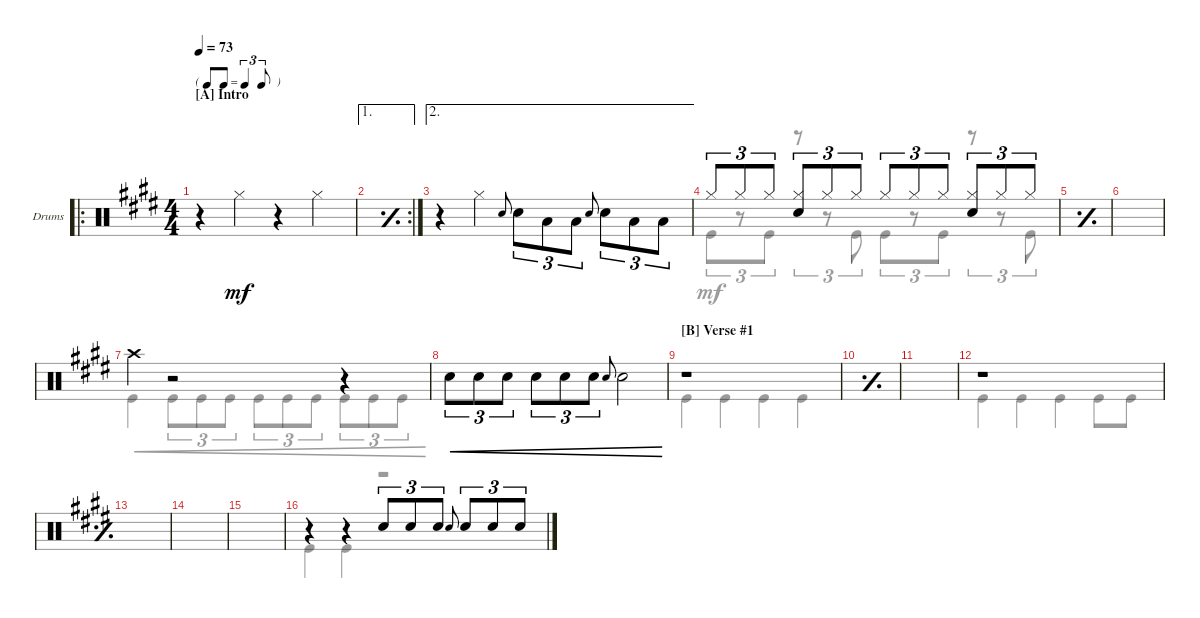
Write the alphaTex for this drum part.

\defaultSystemsLayout 4
\bracketExtendMode groupsimilarinstruments
\firstSystemTrackNameOrientation horizontal
\otherSystemsTrackNameOrientation horizontal
\track ("Drumkit" "Drums") {instrument percussion}
\staff {score}
\articulation defaults
\voice
\ro
\ts (4 4)
\tf triplet8th
\section ("A" "Intro")
\tempo 73
\clef neutral
\ks e
r.4{dy mf} "Hi-Hat (closed)".4 r.4 "Hi-Hat (closed)".4 |
\ae 1
\rc 2
\simile simple
|
\ae 2
\simile none
r.4 "Hi-Hat (closed)".4 "Snare (hit) 2".8{gr onbeat} "Snare (hit) 2".8{tu (3 2)} "Low Tom (hit)".8{tu (3 2)} "Low Tom (hit)".8{tu (3 2)} "Snare (hit) 2".8{gr onbeat} "Snare (hit) 2".8{tu (3 2)} "Low Tom (hit)".8{tu (3 2)} "Low Tom (hit)".8{tu (3 2)} |
"Hi-Hat (closed)".8{tu (3 2)} "Hi-Hat (closed)".8{tu (3 2)} "Hi-Hat (closed)".8{tu (3 2)} ("Hi-Hat (closed)" "Snare (hit) 2").8{tu (3 2)} "Hi-Hat (closed)".8{tu (3 2)} "Hi-Hat (closed)".8{tu (3 2)} "Hi-Hat (closed)".8{tu (3 2)} "Hi-Hat (closed)".8{tu (3 2)} "Hi-Hat (closed)".8{tu (3 2)} ("Hi-Hat (closed)" "Snare (hit) 2").8{tu (3 2)} "Hi-Hat (closed)".8{tu (3 2)} "Hi-Hat (closed)".8{tu (3 2)} |
\simile simple
|
|
\simile none "Crash high (hit)".4{beam invert}
r.2 r.4 |
"Snare (hit) 2".8{tu (3 2) cre} "Snare (hit) 2".8{tu (3 2) cre} "Snare (hit) 2".8{tu (3 2) cre} "Snare (hit) 2".8{tu (3 2) cre} "Snare (hit) 2".8{tu (3 2) cre} "Snare (hit) 2".8{tu (3 2) cre} "Snare (hit) 2".8{gr onbeat cre} "Snare (hit) 2".2{cre} |
\section ("B" "Verse #1")
r.1 |
\simile simple
|
|
\simile none
r.1 |
\simile simple
|
|
|
\simile none
r.4 r.4 "Snare (hit) 2".8{tu (3 2)} "Snare (hit) 2".8{tu (3 2)} "Snare (hit) 2".8{tu (3 2)} "Snare (hit) 2".8{gr onbeat} "Snare (hit) 2".8{tu (3 2)} "Snare (hit) 2".8{tu (3 2)} "Snare (hit) 2".8{tu (3 2)}
\voice
\clef neutral
\ottava regular
\simile none
\ks e
|
\simile simple
|
\simile none
|
"Kick (hit)".8{tu (3 2)} r.8{tu (3 2)} "Kick (hit)".8{tu (3 2)} r.8{tu (3 2)} r.8{tu (3 2)} "Kick (hit)".8{tu (3 2)} "Kick (hit)".8{tu (3 2)} r.8{tu (3 2)} "Kick (hit)".8{tu (3 2)} r.8{tu (3 2)} r.8{tu (3 2)} "Kick (hit)".8{tu (3 2)} |
\simile simple
|
|
\simile none "Kick (hit)".4{cre} "Kick (hit)".8{tu (3 2) cre} "Kick (hit)".8{tu (3 2) cre} "Kick (hit)".8{tu (3 2) cre} "Kick (hit)".8{tu (3 2) cre} "Kick (hit)".8{tu (3 2) cre} "Kick (hit)".8{tu (3 2) cre} "Kick (hit)".8{tu (3 2) cre} "Kick (hit)".8{tu (3 2) cre} "Kick (hit)".8{tu (3 2) cre}
|
|
"Kick (hit)".4 "Kick (hit)".4 "Kick (hit)".4 "Kick (hit)".4 |
\simile simple
|
|
\simile none "Kick (hit)".4 "Kick (hit)".4 "Kick (hit)".4 "Kick (hit)".8 "Kick (hit)".8
|
\simile simple
|
|
|
\simile none "Kick (hit)".4 "Kick (hit)".4
r.2
